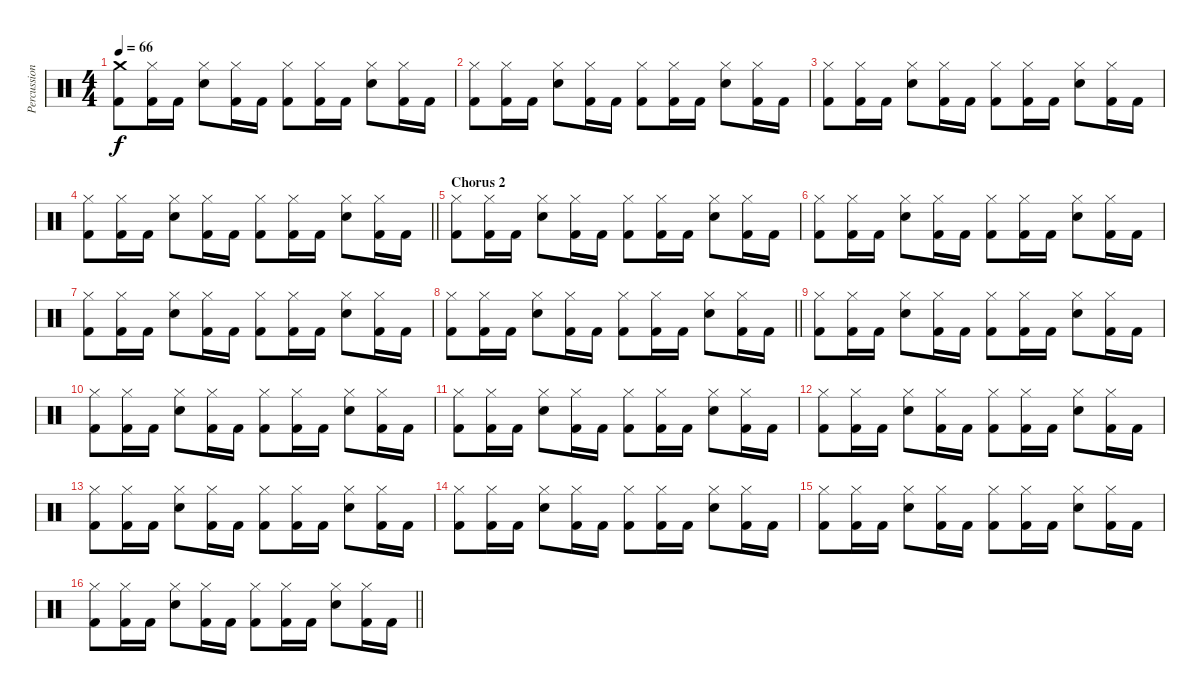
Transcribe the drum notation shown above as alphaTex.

\track ("Percussion" "Percussion") {instrument percussion}
\staff {score}
\articulation defaults
\ts (4 4)
\tempo 66
\clef neutral
\ks c
("Crash medium (hit)" "Kick (hit) 2").8{dy f} ("Hi-Hat (closed)" "Kick (hit) 2").16 "Kick (hit) 2".16 ("Hi-Hat (closed)" "Electric Snare (hit)").8 ("Hi-Hat (closed)" "Kick (hit) 2").16 "Kick (hit) 2".16 ("Hi-Hat (closed)" "Kick (hit) 2").8 ("Hi-Hat (closed)" "Kick (hit) 2").16 "Kick (hit) 2".16 ("Hi-Hat (closed)" "Electric Snare (hit)").8 ("Hi-Hat (closed)" "Kick (hit) 2").16 "Kick (hit) 2".16 |
("Hi-Hat (closed)" "Kick (hit) 2").8 ("Hi-Hat (closed)" "Kick (hit) 2").16 "Kick (hit) 2".16 ("Hi-Hat (closed)" "Electric Snare (hit)").8 ("Hi-Hat (closed)" "Kick (hit) 2").16 "Kick (hit) 2".16 ("Hi-Hat (closed)" "Kick (hit) 2").8 ("Hi-Hat (closed)" "Kick (hit) 2").16 "Kick (hit) 2".16 ("Hi-Hat (closed)" "Electric Snare (hit)").8 ("Hi-Hat (closed)" "Kick (hit) 2").16 "Kick (hit) 2".16 |
("Hi-Hat (closed)" "Kick (hit) 2").8 ("Hi-Hat (closed)" "Kick (hit) 2").16 "Kick (hit) 2".16 ("Hi-Hat (closed)" "Electric Snare (hit)").8 ("Hi-Hat (closed)" "Kick (hit) 2").16 "Kick (hit) 2".16 ("Hi-Hat (closed)" "Kick (hit) 2").8 ("Hi-Hat (closed)" "Kick (hit) 2").16 "Kick (hit) 2".16 ("Hi-Hat (closed)" "Electric Snare (hit)").8 ("Hi-Hat (closed)" "Kick (hit) 2").16 "Kick (hit) 2".16 |
\barLineRight lightlight
("Hi-Hat (closed)" "Kick (hit) 2").8 ("Hi-Hat (closed)" "Kick (hit) 2").16 "Kick (hit) 2".16 ("Hi-Hat (closed)" "Electric Snare (hit)").8 ("Hi-Hat (closed)" "Kick (hit) 2").16 "Kick (hit) 2".16 ("Hi-Hat (closed)" "Kick (hit) 2").8 ("Hi-Hat (closed)" "Kick (hit) 2").16 "Kick (hit) 2".16 ("Hi-Hat (closed)" "Electric Snare (hit)").8 ("Hi-Hat (closed)" "Kick (hit) 2").16 "Kick (hit) 2".16 |
\section ("" "Chorus 2")
("Hi-Hat (closed)" "Kick (hit) 2").8 ("Hi-Hat (closed)" "Kick (hit) 2").16 "Kick (hit) 2".16 ("Hi-Hat (closed)" "Electric Snare (hit)").8 ("Hi-Hat (closed)" "Kick (hit) 2").16 "Kick (hit) 2".16 ("Hi-Hat (closed)" "Kick (hit) 2").8 ("Hi-Hat (closed)" "Kick (hit) 2").16 "Kick (hit) 2".16 ("Hi-Hat (closed)" "Electric Snare (hit)").8 ("Hi-Hat (closed)" "Kick (hit) 2").16 "Kick (hit) 2".16 |
("Hi-Hat (closed)" "Kick (hit) 2").8 ("Hi-Hat (closed)" "Kick (hit) 2").16 "Kick (hit) 2".16 ("Hi-Hat (closed)" "Electric Snare (hit)").8 ("Hi-Hat (closed)" "Kick (hit) 2").16 "Kick (hit) 2".16 ("Hi-Hat (closed)" "Kick (hit) 2").8 ("Hi-Hat (closed)" "Kick (hit) 2").16 "Kick (hit) 2".16 ("Hi-Hat (closed)" "Electric Snare (hit)").8 ("Hi-Hat (closed)" "Kick (hit) 2").16 "Kick (hit) 2".16 |
("Hi-Hat (closed)" "Kick (hit) 2").8 ("Hi-Hat (closed)" "Kick (hit) 2").16 "Kick (hit) 2".16 ("Hi-Hat (closed)" "Electric Snare (hit)").8 ("Hi-Hat (closed)" "Kick (hit) 2").16 "Kick (hit) 2".16 ("Hi-Hat (closed)" "Kick (hit) 2").8 ("Hi-Hat (closed)" "Kick (hit) 2").16 "Kick (hit) 2".16 ("Hi-Hat (closed)" "Electric Snare (hit)").8 ("Hi-Hat (closed)" "Kick (hit) 2").16 "Kick (hit) 2".16 |
\barLineRight lightlight
("Hi-Hat (closed)" "Kick (hit) 2").8 ("Hi-Hat (closed)" "Kick (hit) 2").16 "Kick (hit) 2".16 ("Hi-Hat (closed)" "Electric Snare (hit)").8 ("Hi-Hat (closed)" "Kick (hit) 2").16 "Kick (hit) 2".16 ("Hi-Hat (closed)" "Kick (hit) 2").8 ("Hi-Hat (closed)" "Kick (hit) 2").16 "Kick (hit) 2".16 ("Hi-Hat (closed)" "Electric Snare (hit)").8 ("Hi-Hat (closed)" "Kick (hit) 2").16 "Kick (hit) 2".16 |
("Hi-Hat (closed)" "Kick (hit) 2").8 ("Hi-Hat (closed)" "Kick (hit) 2").16 "Kick (hit) 2".16 ("Hi-Hat (closed)" "Electric Snare (hit)").8 ("Hi-Hat (closed)" "Kick (hit) 2").16 "Kick (hit) 2".16 ("Hi-Hat (closed)" "Kick (hit) 2").8 ("Hi-Hat (closed)" "Kick (hit) 2").16 "Kick (hit) 2".16 ("Hi-Hat (closed)" "Electric Snare (hit)").8 ("Hi-Hat (closed)" "Kick (hit) 2").16 "Kick (hit) 2".16 |
("Hi-Hat (closed)" "Kick (hit) 2").8 ("Hi-Hat (closed)" "Kick (hit) 2").16 "Kick (hit) 2".16 ("Hi-Hat (closed)" "Electric Snare (hit)").8 ("Hi-Hat (closed)" "Kick (hit) 2").16 "Kick (hit) 2".16 ("Hi-Hat (closed)" "Kick (hit) 2").8 ("Hi-Hat (closed)" "Kick (hit) 2").16 "Kick (hit) 2".16 ("Hi-Hat (closed)" "Electric Snare (hit)").8 ("Hi-Hat (closed)" "Kick (hit) 2").16 "Kick (hit) 2".16 |
("Hi-Hat (closed)" "Kick (hit) 2").8 ("Hi-Hat (closed)" "Kick (hit) 2").16 "Kick (hit) 2".16 ("Hi-Hat (closed)" "Electric Snare (hit)").8 ("Hi-Hat (closed)" "Kick (hit) 2").16 "Kick (hit) 2".16 ("Hi-Hat (closed)" "Kick (hit) 2").8 ("Hi-Hat (closed)" "Kick (hit) 2").16 "Kick (hit) 2".16 ("Hi-Hat (closed)" "Electric Snare (hit)").8 ("Hi-Hat (closed)" "Kick (hit) 2").16 "Kick (hit) 2".16 |
("Hi-Hat (closed)" "Kick (hit) 2").8 ("Hi-Hat (closed)" "Kick (hit) 2").16 "Kick (hit) 2".16 ("Hi-Hat (closed)" "Electric Snare (hit)").8 ("Hi-Hat (closed)" "Kick (hit) 2").16 "Kick (hit) 2".16 ("Hi-Hat (closed)" "Kick (hit) 2").8 ("Hi-Hat (closed)" "Kick (hit) 2").16 "Kick (hit) 2".16 ("Hi-Hat (closed)" "Electric Snare (hit)").8 ("Hi-Hat (closed)" "Kick (hit) 2").16 "Kick (hit) 2".16 |
("Hi-Hat (closed)" "Kick (hit) 2").8 ("Hi-Hat (closed)" "Kick (hit) 2").16 "Kick (hit) 2".16 ("Hi-Hat (closed)" "Electric Snare (hit)").8 ("Hi-Hat (closed)" "Kick (hit) 2").16 "Kick (hit) 2".16 ("Hi-Hat (closed)" "Kick (hit) 2").8 ("Hi-Hat (closed)" "Kick (hit) 2").16 "Kick (hit) 2".16 ("Hi-Hat (closed)" "Electric Snare (hit)").8 ("Hi-Hat (closed)" "Kick (hit) 2").16 "Kick (hit) 2".16 |
("Hi-Hat (closed)" "Kick (hit) 2").8 ("Hi-Hat (closed)" "Kick (hit) 2").16 "Kick (hit) 2".16 ("Hi-Hat (closed)" "Electric Snare (hit)").8 ("Hi-Hat (closed)" "Kick (hit) 2").16 "Kick (hit) 2".16 ("Hi-Hat (closed)" "Kick (hit) 2").8 ("Hi-Hat (closed)" "Kick (hit) 2").16 "Kick (hit) 2".16 ("Hi-Hat (closed)" "Electric Snare (hit)").8 ("Hi-Hat (closed)" "Kick (hit) 2").16 "Kick (hit) 2".16 |
("Hi-Hat (closed)" "Kick (hit) 2").8 ("Hi-Hat (closed)" "Kick (hit) 2").16 "Kick (hit) 2".16 ("Hi-Hat (closed)" "Electric Snare (hit)").8 ("Hi-Hat (closed)" "Kick (hit) 2").16 "Kick (hit) 2".16 ("Hi-Hat (closed)" "Kick (hit) 2").8 ("Hi-Hat (closed)" "Kick (hit) 2").16 "Kick (hit) 2".16 ("Hi-Hat (closed)" "Electric Snare (hit)").8 ("Hi-Hat (closed)" "Kick (hit) 2").16 "Kick (hit) 2".16 |
\barLineRight lightlight
("Hi-Hat (closed)" "Kick (hit) 2").8 ("Hi-Hat (closed)" "Kick (hit) 2").16 "Kick (hit) 2".16 ("Hi-Hat (closed)" "Electric Snare (hit)").8 ("Hi-Hat (closed)" "Kick (hit) 2").16 "Kick (hit) 2".16 ("Hi-Hat (closed)" "Kick (hit) 2").8 ("Hi-Hat (closed)" "Kick (hit) 2").16 "Kick (hit) 2".16 ("Hi-Hat (closed)" "Electric Snare (hit)").8 ("Hi-Hat (closed)" "Kick (hit) 2").16 "Kick (hit) 2".16
